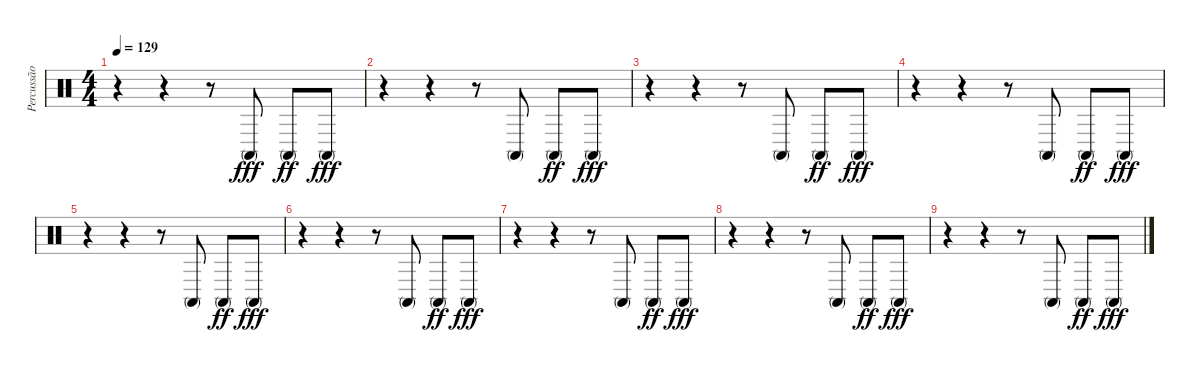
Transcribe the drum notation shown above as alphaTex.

\track ("Percussão" "Percussão") {instrument percussion}
\staff {score}
\articulation defaults
\ts (4 4)
\tempo 129
\clef neutral
\ks c
r.4{dy fff} r.4 r.8 "Conga high (mute)".8 "Conga high (mute)".8{dy ff} "Conga high (mute)".8{dy fff} |
r.4 r.4 r.8 "Conga high (mute)".8 "Conga high (mute)".8{dy ff} "Conga high (mute)".8{dy fff} |
r.4 r.4 r.8 "Conga high (mute)".8 "Conga high (mute)".8{dy ff} "Conga high (mute)".8{dy fff} |
r.4 r.4 r.8 "Conga high (mute)".8 "Conga high (mute)".8{dy ff} "Conga high (mute)".8{dy fff} |
r.4 r.4 r.8 "Conga high (mute)".8 "Conga high (mute)".8{dy ff} "Conga high (mute)".8{dy fff} |
r.4 r.4 r.8 "Conga high (mute)".8 "Conga high (mute)".8{dy ff} "Conga high (mute)".8{dy fff} |
r.4 r.4 r.8 "Conga high (mute)".8 "Conga high (mute)".8{dy ff} "Conga high (mute)".8{dy fff} |
r.4 r.4 r.8 "Conga high (mute)".8 "Conga high (mute)".8{dy ff} "Conga high (mute)".8{dy fff} |
r.4 r.4 r.8 "Conga high (mute)".8 "Conga high (mute)".8{dy ff} "Conga high (mute)".8{dy fff}
